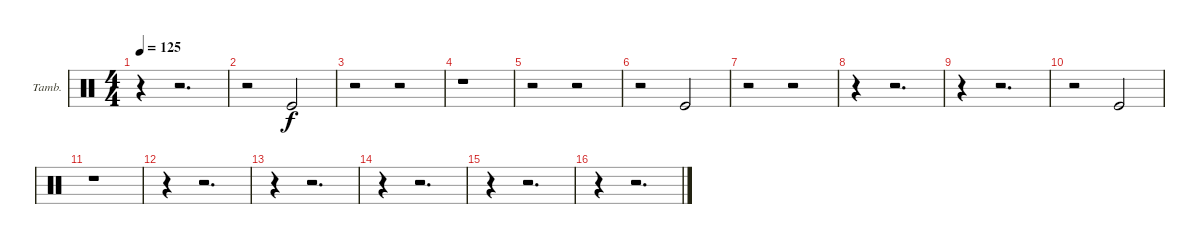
\bracketExtendMode groupsimilarinstruments
\firstSystemTrackNameOrientation horizontal
\otherSystemsTrackNameOrientation horizontal
\track ("Tambourine" "Tamb.") {instrument percussion}
\staff {score}
\articulation defaults
\ts (4 4)
\tempo 125
\clef neutral
\ks c
r.4{dy f} r.2{d} |
r.2 "Kick (hit)".2 |
r.2 r.2 |
r.1 |
r.2 r.2 |
r.2 "Kick (hit)".2 |
r.2 r.2 |
r.4 r.2{d} |
r.4 r.2{d} |
r.2 "Kick (hit)".2 |
r.1 |
r.4 r.2{d} |
r.4 r.2{d} |
r.4 r.2{d} |
r.4 r.2{d} |
r.4 r.2{d}
